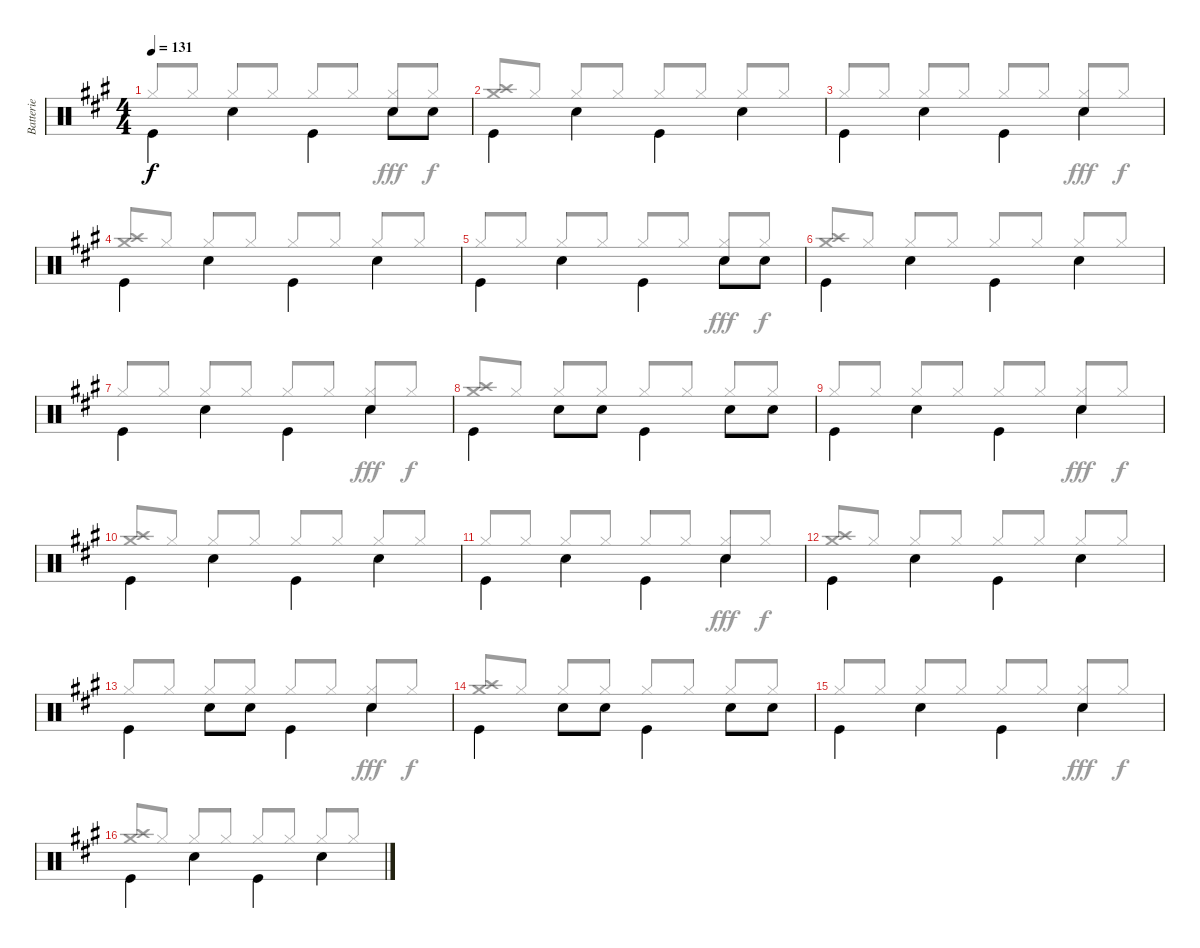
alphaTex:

\track ("Batterie" "Batterie") {instrument percussion}
\staff {score}
\articulation defaults
\voice
\ts (4 4)
\tempo 131
\clef neutral
\ks a "Kick (hit)".4{dy f beam Down} "Snare (hit) 2".4{beam Down} "Kick (hit)".4{beam Down} "Snare (hit) 2".8{beam Down} "Snare (hit) 2".8{beam Down}
|
"Kick (hit)".4{beam Down} "Snare (hit) 2".4{beam Down} "Kick (hit)".4{beam Down} "Snare (hit) 2".4{beam Down} |
"Kick (hit)".4{beam Down} "Snare (hit) 2".4{beam Down} "Kick (hit)".4{beam Down} "Snare (hit) 2".4{beam Down} |
"Kick (hit)".4{beam Down} "Snare (hit) 2".4{beam Down} "Kick (hit)".4{beam Down} "Snare (hit) 2".4{beam Down} |
"Kick (hit)".4{beam Down} "Snare (hit) 2".4{beam Down} "Kick (hit)".4{beam Down} "Snare (hit) 2".8{beam Down} "Snare (hit) 2".8{beam Down} |
"Kick (hit)".4{beam Down} "Snare (hit) 2".4{beam Down} "Kick (hit)".4{beam Down} "Snare (hit) 2".4{beam Down} |
"Kick (hit)".4{beam Down} "Snare (hit) 2".4{beam Down} "Kick (hit)".4{beam Down} "Snare (hit) 2".4{beam Down} |
"Kick (hit)".4{beam Down} "Snare (hit) 2".8{beam Down} "Snare (hit) 2".8{beam Down} "Kick (hit)".4{beam Down} "Snare (hit) 2".8{beam Down} "Snare (hit) 2".8{beam Down} |
"Kick (hit)".4{beam Down} "Snare (hit) 2".4{beam Down} "Kick (hit)".4{beam Down} "Snare (hit) 2".4{beam Down} |
"Kick (hit)".4{beam Down} "Snare (hit) 2".4{beam Down} "Kick (hit)".4{beam Down} "Snare (hit) 2".4{beam Down} |
"Kick (hit)".4{beam Down} "Snare (hit) 2".4{beam Down} "Kick (hit)".4{beam Down} "Snare (hit) 2".4{beam Down} |
"Kick (hit)".4{beam Down} "Snare (hit) 2".4{beam Down} "Kick (hit)".4{beam Down} "Snare (hit) 2".4{beam Down} |
"Kick (hit)".4{beam Down} "Snare (hit) 2".8{beam Down} "Snare (hit) 2".8{beam Down} "Kick (hit)".4{beam Down} "Snare (hit) 2".4{beam Down} |
"Kick (hit)".4{beam Down} "Snare (hit) 2".8{beam Down} "Snare (hit) 2".8{beam Down} "Kick (hit)".4{beam Down} "Snare (hit) 2".8{beam Down} "Snare (hit) 2".8{beam Down} |
"Kick (hit)".4{beam Down} "Snare (hit) 2".4{beam Down} "Kick (hit)".4{beam Down} "Snare (hit) 2".4{beam Down} |
"Kick (hit)".4{beam Down} "Snare (hit) 2".4{beam Down} "Kick (hit)".4{beam Down} "Snare (hit) 2".4{beam Down}
\voice
\clef neutral
\ottava regular
\simile none
\ks a "Hi-Hat (closed)".8{dy f beam Up} "Hi-Hat (closed)".8{beam Up} "Hi-Hat (closed)".8{beam Up} "Hi-Hat (closed)".8{beam Up} "Hi-Hat (closed)".8{beam Up} "Hi-Hat (closed)".8{beam Up}
("Electric Snare (hit)" "Hi-Hat (closed)").8{dy fff beam Up} "Hi-Hat (closed)".8{dy f beam Up} |
("Crash medium (hit)" "Crash high (hit)").8{beam Up} "Hi-Hat (closed)".8{beam Up} "Hi-Hat (closed)".8{beam Up} "Hi-Hat (closed)".8{beam Up} "Hi-Hat (closed)".8{beam Up} "Hi-Hat (closed)".8{beam Up} "Hi-Hat (closed)".8{beam Up} "Hi-Hat (closed)".8{beam Up} |
"Hi-Hat (closed)".8{beam Up} "Hi-Hat (closed)".8{beam Up} "Hi-Hat (closed)".8{beam Up} "Hi-Hat (closed)".8{beam Up} "Hi-Hat (closed)".8{beam Up} "Hi-Hat (closed)".8{beam Up} ("Electric Snare (hit)" "Hi-Hat (closed)").8{dy fff beam Up} "Hi-Hat (closed)".8{dy f beam Up} |
("Crash medium (hit)" "Crash high (hit)").8{beam Up} "Hi-Hat (closed)".8{beam Up} "Hi-Hat (closed)".8{beam Up} "Hi-Hat (closed)".8{beam Up} "Hi-Hat (closed)".8{beam Up} "Hi-Hat (closed)".8{beam Up} "Hi-Hat (closed)".8{beam Up} "Hi-Hat (closed)".8{beam Up} |
"Hi-Hat (closed)".8{beam Up} "Hi-Hat (closed)".8{beam Up} "Hi-Hat (closed)".8{beam Up} "Hi-Hat (closed)".8{beam Up} "Hi-Hat (closed)".8{beam Up} "Hi-Hat (closed)".8{beam Up} ("Electric Snare (hit)" "Hi-Hat (closed)").8{dy fff beam Up} "Hi-Hat (closed)".8{dy f beam Up} |
("Crash medium (hit)" "Crash high (hit)").8{beam Up} "Hi-Hat (closed)".8{beam Up} "Hi-Hat (closed)".8{beam Up} "Hi-Hat (closed)".8{beam Up} "Hi-Hat (closed)".8{beam Up} "Hi-Hat (closed)".8{beam Up} "Hi-Hat (closed)".8{beam Up} "Hi-Hat (closed)".8{beam Up} |
"Hi-Hat (closed)".8{beam Up} "Hi-Hat (closed)".8{beam Up} "Hi-Hat (closed)".8{beam Up} "Hi-Hat (closed)".8{beam Up} "Hi-Hat (closed)".8{beam Up} "Hi-Hat (closed)".8{beam Up} ("Electric Snare (hit)" "Hi-Hat (closed)").8{dy fff beam Up} "Hi-Hat (closed)".8{dy f beam Up} |
("Crash medium (hit)" "Crash high (hit)").8{beam Up} "Hi-Hat (closed)".8{beam Up} "Hi-Hat (closed)".8{beam Up} "Hi-Hat (closed)".8{beam Up} "Hi-Hat (closed)".8{beam Up} "Hi-Hat (closed)".8{beam Up} "Hi-Hat (closed)".8{beam Up} "Hi-Hat (closed)".8{beam Up} |
"Hi-Hat (closed)".8{beam Up} "Hi-Hat (closed)".8{beam Up} "Hi-Hat (closed)".8{beam Up} "Hi-Hat (closed)".8{beam Up} "Hi-Hat (closed)".8{beam Up} "Hi-Hat (closed)".8{beam Up} ("Electric Snare (hit)" "Hi-Hat (closed)").8{dy fff beam Up} "Hi-Hat (closed)".8{dy f beam Up} |
("Crash medium (hit)" "Crash high (hit)").8{beam Up} "Hi-Hat (closed)".8{beam Up} "Hi-Hat (closed)".8{beam Up} "Hi-Hat (closed)".8{beam Up} "Hi-Hat (closed)".8{beam Up} "Hi-Hat (closed)".8{beam Up} "Hi-Hat (closed)".8{beam Up} "Hi-Hat (closed)".8{beam Up} |
"Hi-Hat (closed)".8{beam Up} "Hi-Hat (closed)".8{beam Up} "Hi-Hat (closed)".8{beam Up} "Hi-Hat (closed)".8{beam Up} "Hi-Hat (closed)".8{beam Up} "Hi-Hat (closed)".8{beam Up} ("Electric Snare (hit)" "Hi-Hat (closed)").8{dy fff beam Up} "Hi-Hat (closed)".8{dy f beam Up} |
("Crash medium (hit)" "Crash high (hit)").8{beam Up} "Hi-Hat (closed)".8{beam Up} "Hi-Hat (closed)".8{beam Up} "Hi-Hat (closed)".8{beam Up} "Hi-Hat (closed)".8{beam Up} "Hi-Hat (closed)".8{beam Up} "Hi-Hat (closed)".8{beam Up} "Hi-Hat (closed)".8{beam Up} |
"Hi-Hat (closed)".8{beam Up} "Hi-Hat (closed)".8{beam Up} "Hi-Hat (closed)".8{beam Up} "Hi-Hat (closed)".8{beam Up} "Hi-Hat (closed)".8{beam Up} "Hi-Hat (closed)".8{beam Up} ("Electric Snare (hit)" "Hi-Hat (closed)").8{dy fff beam Up} "Hi-Hat (closed)".8{dy f beam Up} |
("Crash medium (hit)" "Crash high (hit)").8{beam Up} "Hi-Hat (closed)".8{beam Up} "Hi-Hat (closed)".8{beam Up} "Hi-Hat (closed)".8{beam Up} "Hi-Hat (closed)".8{beam Up} "Hi-Hat (closed)".8{beam Up} "Hi-Hat (closed)".8{beam Up} "Hi-Hat (closed)".8{beam Up} |
"Hi-Hat (closed)".8{beam Up} "Hi-Hat (closed)".8{beam Up} "Hi-Hat (closed)".8{beam Up} "Hi-Hat (closed)".8{beam Up} "Hi-Hat (closed)".8{beam Up} "Hi-Hat (closed)".8{beam Up} ("Electric Snare (hit)" "Hi-Hat (closed)").8{dy fff beam Up} "Hi-Hat (closed)".8{dy f beam Up} |
("Crash medium (hit)" "Crash high (hit)").8{beam Up} "Hi-Hat (closed)".8{beam Up} "Hi-Hat (closed)".8{beam Up} "Hi-Hat (closed)".8{beam Up} "Hi-Hat (closed)".8{beam Up} "Hi-Hat (closed)".8{beam Up} "Hi-Hat (closed)".8{beam Up} "Hi-Hat (closed)".8{beam Up}
